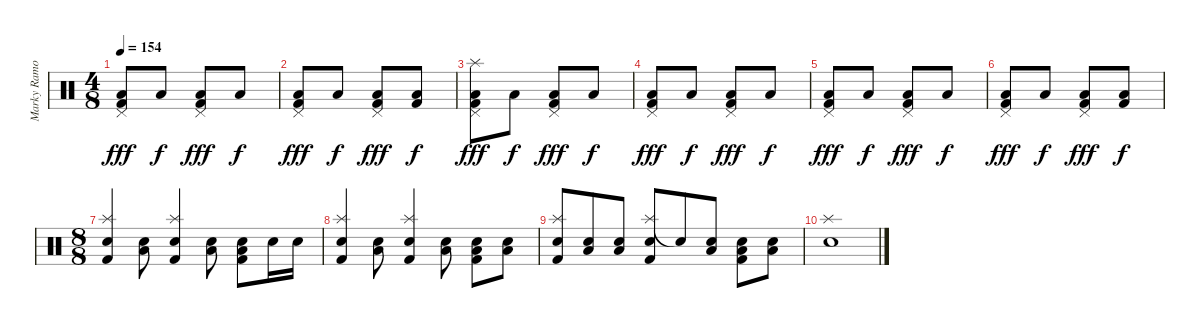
\track ("Marky Ramone - Drums" "Marky Ramo") {instrument percussion}
\staff {score}
\articulation defaults
\ts (4 8)
\tempo 154
\clef neutral
\ks c
("Low Floor Tom (hit)" "Pedal Hi-Hat (hit)" "Kick (hit) 2").8{dy fff} "Low Floor Tom (hit)".8{dy f} ("Low Floor Tom (hit)" "Pedal Hi-Hat (hit)" "Kick (hit) 2").8{dy fff} "Low Floor Tom (hit)".8{dy f} |
("Low Floor Tom (hit)" "Pedal Hi-Hat (hit)" "Kick (hit) 2").8{dy fff} "Low Floor Tom (hit)".8{dy f} ("Low Floor Tom (hit)" "Pedal Hi-Hat (hit)" "Kick (hit) 2").8{dy fff} ("Low Floor Tom (hit)" "Kick (hit) 2").8{dy f} |
("Low Floor Tom (hit)" "Splash (hit)" "Pedal Hi-Hat (hit)" "Kick (hit) 2").8{dy fff} "Low Floor Tom (hit)".8{dy f} ("Low Floor Tom (hit)" "Pedal Hi-Hat (hit)" "Kick (hit) 2").8{dy fff} "Low Floor Tom (hit)".8{dy f} |
("Low Floor Tom (hit)" "Pedal Hi-Hat (hit)" "Kick (hit) 2").8{dy fff} "Low Floor Tom (hit)".8{dy f} ("Low Floor Tom (hit)" "Pedal Hi-Hat (hit)" "Kick (hit) 2").8{dy fff} "Low Floor Tom (hit)".8{dy f} |
("Low Floor Tom (hit)" "Pedal Hi-Hat (hit)" "Kick (hit) 2").8{dy fff} "Low Floor Tom (hit)".8{dy f} ("Low Floor Tom (hit)" "Pedal Hi-Hat (hit)" "Kick (hit) 2").8{dy fff} "Low Floor Tom (hit)".8{dy f} |
("Low Floor Tom (hit)" "Pedal Hi-Hat (hit)" "Kick (hit) 2").8{dy fff} "Low Floor Tom (hit)".8{dy f} ("Low Floor Tom (hit)" "Pedal Hi-Hat (hit)" "Kick (hit) 2").8{dy fff} ("Low Floor Tom (hit)" "Kick (hit) 2").8{dy f} |
\ts (8 8)
("Splash (hit)" "Snare (hit) 2" "Kick (hit) 2").4 ("Low Floor Tom (hit)" "Snare (hit) 2").8 ("Splash (hit)" "Snare (hit) 2" "Kick (hit) 2").4 ("Low Floor Tom (hit)" "Snare (hit) 2").8 ("Low Floor Tom (hit)" "Snare (hit) 2" "Kick (hit) 2").8 "Snare (hit) 2".16 "Snare (hit) 2".16 |
("Splash (hit)" "Snare (hit) 2" "Kick (hit) 2").4 ("Low Floor Tom (hit)" "Snare (hit) 2").8 ("Splash (hit)" "Snare (hit) 2" "Kick (hit) 2").4 ("Low Floor Tom (hit)" "Snare (hit) 2").8 ("Low Floor Tom (hit)" "Snare (hit) 2" "Kick (hit) 2").8 ("Low Floor Tom (hit)" "Snare (hit) 2").8 |
("Splash (hit)" "Snare (hit) 2" "Kick (hit) 2").8 ("Low Floor Tom (hit)" "Snare (hit) 2").8 ("Low Floor Tom (hit)" "Snare (hit) 2").8 ("Splash (hit)" "Snare (hit) 2" "Kick (hit) 2").8 "Electric Snare (hit)"{t}.8 ("Low Floor Tom (hit)" "Snare (hit) 2").8 ("Low Floor Tom (hit)" "Snare (hit) 2" "Kick (hit) 2").8 ("Low Floor Tom (hit)" "Snare (hit) 2").8 |
("Splash (hit)" "Snare (hit) 2").1
